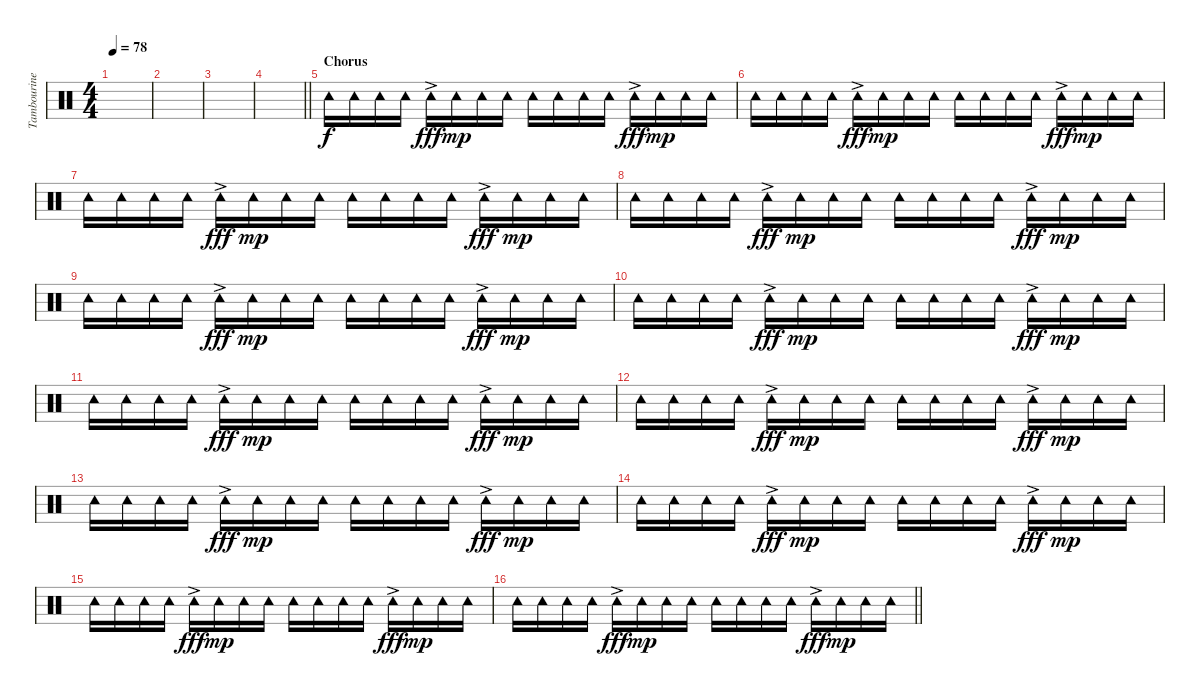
\track ("Tambourine" "Tambourine") {instrument percussion}
\staff {score}
\articulation defaults
\ts (4 4)
\tempo 78
\clef neutral
\ks c
|
|
|
\barLineRight lightlight
|
\section ("" "Chorus")
"Tambourine (hit)".16{volume 1} "Tambourine (hit)".16 "Tambourine (hit)".16 "Tambourine (hit)".16 "Tambourine (hit)"{ac}.16{dy fff} "Tambourine (hit)".16{dy mp} "Tambourine (hit)".16 "Tambourine (hit)".16 "Tambourine (hit)".16 "Tambourine (hit)".16 "Tambourine (hit)".16 "Tambourine (hit)".16 "Tambourine (hit)"{ac}.16{dy fff} "Tambourine (hit)".16{dy mp} "Tambourine (hit)".16 "Tambourine (hit)".16 |
"Tambourine (hit)".16 "Tambourine (hit)".16 "Tambourine (hit)".16 "Tambourine (hit)".16 "Tambourine (hit)"{ac}.16{dy fff} "Tambourine (hit)".16{dy mp} "Tambourine (hit)".16 "Tambourine (hit)".16 "Tambourine (hit)".16 "Tambourine (hit)".16 "Tambourine (hit)".16 "Tambourine (hit)".16 "Tambourine (hit)"{ac}.16{dy fff} "Tambourine (hit)".16{dy mp} "Tambourine (hit)".16 "Tambourine (hit)".16 |
"Tambourine (hit)".16 "Tambourine (hit)".16 "Tambourine (hit)".16 "Tambourine (hit)".16 "Tambourine (hit)"{ac}.16{dy fff} "Tambourine (hit)".16{dy mp} "Tambourine (hit)".16 "Tambourine (hit)".16 "Tambourine (hit)".16 "Tambourine (hit)".16 "Tambourine (hit)".16 "Tambourine (hit)".16 "Tambourine (hit)"{ac}.16{dy fff} "Tambourine (hit)".16{dy mp} "Tambourine (hit)".16 "Tambourine (hit)".16 |
"Tambourine (hit)".16 "Tambourine (hit)".16 "Tambourine (hit)".16 "Tambourine (hit)".16 "Tambourine (hit)"{ac}.16{dy fff} "Tambourine (hit)".16{dy mp} "Tambourine (hit)".16 "Tambourine (hit)".16 "Tambourine (hit)".16 "Tambourine (hit)".16 "Tambourine (hit)".16 "Tambourine (hit)".16 "Tambourine (hit)"{ac}.16{dy fff} "Tambourine (hit)".16{dy mp} "Tambourine (hit)".16 "Tambourine (hit)".16 |
"Tambourine (hit)".16 "Tambourine (hit)".16 "Tambourine (hit)".16 "Tambourine (hit)".16 "Tambourine (hit)"{ac}.16{dy fff} "Tambourine (hit)".16{dy mp} "Tambourine (hit)".16 "Tambourine (hit)".16 "Tambourine (hit)".16 "Tambourine (hit)".16 "Tambourine (hit)".16 "Tambourine (hit)".16 "Tambourine (hit)"{ac}.16{dy fff} "Tambourine (hit)".16{dy mp} "Tambourine (hit)".16 "Tambourine (hit)".16 |
"Tambourine (hit)".16 "Tambourine (hit)".16 "Tambourine (hit)".16 "Tambourine (hit)".16 "Tambourine (hit)"{ac}.16{dy fff} "Tambourine (hit)".16{dy mp} "Tambourine (hit)".16 "Tambourine (hit)".16 "Tambourine (hit)".16 "Tambourine (hit)".16 "Tambourine (hit)".16 "Tambourine (hit)".16 "Tambourine (hit)"{ac}.16{dy fff} "Tambourine (hit)".16{dy mp} "Tambourine (hit)".16 "Tambourine (hit)".16 |
"Tambourine (hit)".16 "Tambourine (hit)".16 "Tambourine (hit)".16 "Tambourine (hit)".16 "Tambourine (hit)"{ac}.16{dy fff} "Tambourine (hit)".16{dy mp} "Tambourine (hit)".16 "Tambourine (hit)".16 "Tambourine (hit)".16 "Tambourine (hit)".16 "Tambourine (hit)".16 "Tambourine (hit)".16 "Tambourine (hit)"{ac}.16{dy fff} "Tambourine (hit)".16{dy mp} "Tambourine (hit)".16 "Tambourine (hit)".16 |
"Tambourine (hit)".16 "Tambourine (hit)".16 "Tambourine (hit)".16 "Tambourine (hit)".16 "Tambourine (hit)"{ac}.16{dy fff} "Tambourine (hit)".16{dy mp} "Tambourine (hit)".16 "Tambourine (hit)".16 "Tambourine (hit)".16 "Tambourine (hit)".16 "Tambourine (hit)".16 "Tambourine (hit)".16 "Tambourine (hit)"{ac}.16{dy fff} "Tambourine (hit)".16{dy mp} "Tambourine (hit)".16 "Tambourine (hit)".16 |
"Tambourine (hit)".16 "Tambourine (hit)".16 "Tambourine (hit)".16 "Tambourine (hit)".16 "Tambourine (hit)"{ac}.16{dy fff} "Tambourine (hit)".16{dy mp} "Tambourine (hit)".16 "Tambourine (hit)".16 "Tambourine (hit)".16 "Tambourine (hit)".16 "Tambourine (hit)".16 "Tambourine (hit)".16 "Tambourine (hit)"{ac}.16{dy fff} "Tambourine (hit)".16{dy mp} "Tambourine (hit)".16 "Tambourine (hit)".16 |
"Tambourine (hit)".16 "Tambourine (hit)".16 "Tambourine (hit)".16 "Tambourine (hit)".16 "Tambourine (hit)"{ac}.16{dy fff} "Tambourine (hit)".16{dy mp} "Tambourine (hit)".16 "Tambourine (hit)".16 "Tambourine (hit)".16 "Tambourine (hit)".16 "Tambourine (hit)".16 "Tambourine (hit)".16 "Tambourine (hit)"{ac}.16{dy fff} "Tambourine (hit)".16{dy mp} "Tambourine (hit)".16 "Tambourine (hit)".16 |
"Tambourine (hit)".16 "Tambourine (hit)".16 "Tambourine (hit)".16 "Tambourine (hit)".16 "Tambourine (hit)"{ac}.16{dy fff} "Tambourine (hit)".16{dy mp} "Tambourine (hit)".16 "Tambourine (hit)".16 "Tambourine (hit)".16 "Tambourine (hit)".16 "Tambourine (hit)".16 "Tambourine (hit)".16 "Tambourine (hit)"{ac}.16{dy fff} "Tambourine (hit)".16{dy mp} "Tambourine (hit)".16 "Tambourine (hit)".16 |
\barLineRight lightlight "Tambourine (hit)".16 "Tambourine (hit)".16 "Tambourine (hit)".16 "Tambourine (hit)".16 "Tambourine (hit)"{ac}.16{dy fff} "Tambourine (hit)".16{dy mp} "Tambourine (hit)".16 "Tambourine (hit)".16 "Tambourine (hit)".16 "Tambourine (hit)".16 "Tambourine (hit)".16 "Tambourine (hit)".16 "Tambourine (hit)"{ac}.16{dy fff} "Tambourine (hit)".16{dy mp} "Tambourine (hit)".16 "Tambourine (hit)".16
